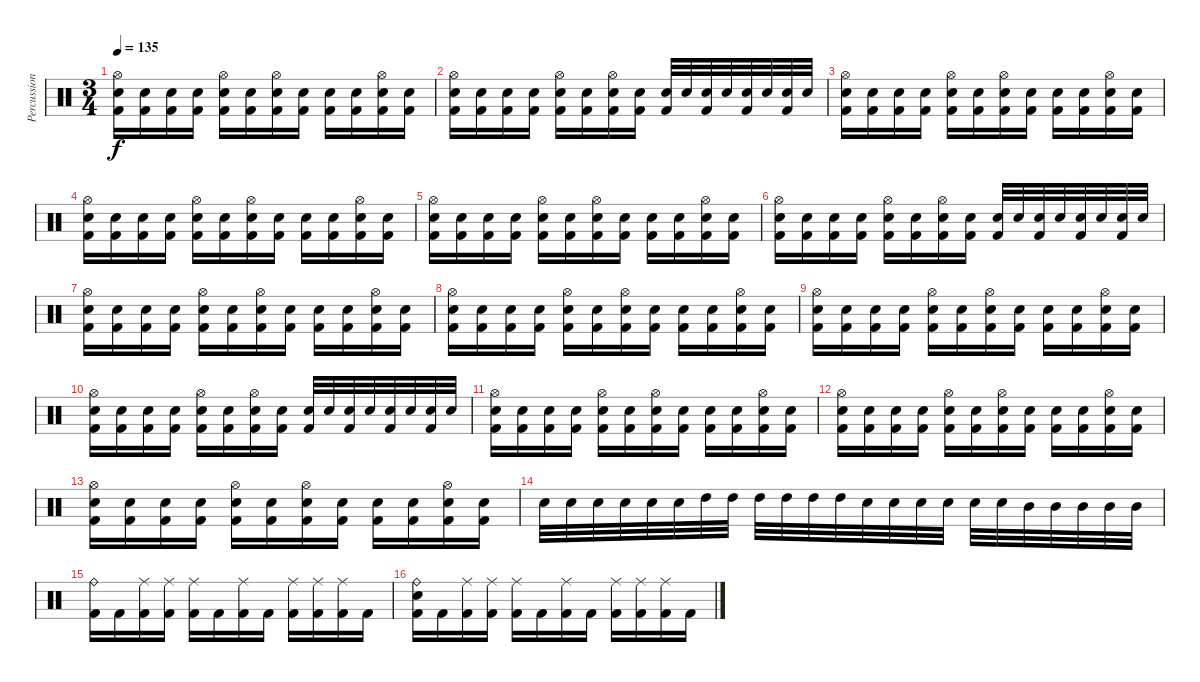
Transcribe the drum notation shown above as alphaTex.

\track ("Percussion" "Percussion") {instrument percussion}
\staff {score}
\articulation defaults
\ts (3 4)
\tempo 135
\clef neutral
\ks c
("Hi-Hat (open)" "Electric Snare (hit)" "Kick (hit) 2").16{dy f} ("Electric Snare (hit)" "Kick (hit) 2").16 ("Electric Snare (hit)" "Kick (hit) 2").16 ("Electric Snare (hit)" "Kick (hit) 2").16 ("Hi-Hat (open)" "Electric Snare (hit)" "Kick (hit) 2").16 ("Electric Snare (hit)" "Kick (hit) 2").16 ("Hi-Hat (open)" "Electric Snare (hit)" "Kick (hit) 2").16 ("Electric Snare (hit)" "Kick (hit) 2").16 ("Electric Snare (hit)" "Kick (hit) 2").16 ("Electric Snare (hit)" "Kick (hit) 2").16 ("Hi-Hat (open)" "Electric Snare (hit)" "Kick (hit) 2").16 ("Electric Snare (hit)" "Kick (hit) 2").16 |
("Hi-Hat (open)" "Electric Snare (hit)" "Kick (hit) 2").16 ("Electric Snare (hit)" "Kick (hit) 2").16 ("Electric Snare (hit)" "Kick (hit) 2").16 ("Electric Snare (hit)" "Kick (hit) 2").16 ("Hi-Hat (open)" "Electric Snare (hit)" "Kick (hit) 2").16 ("Electric Snare (hit)" "Kick (hit) 2").16 ("Hi-Hat (open)" "Electric Snare (hit)" "Kick (hit) 2").16 ("Electric Snare (hit)" "Kick (hit) 2").16 ("Electric Snare (hit)" "Kick (hit) 2").32 "Electric Snare (hit)".32 ("Electric Snare (hit)" "Kick (hit) 2").32 "Electric Snare (hit)".32 ("Electric Snare (hit)" "Kick (hit) 2").32 "Electric Snare (hit)".32 ("Electric Snare (hit)" "Kick (hit) 2").32 "Electric Snare (hit)".32 |
("Hi-Hat (open)" "Electric Snare (hit)" "Kick (hit) 2").16 ("Electric Snare (hit)" "Kick (hit) 2").16 ("Electric Snare (hit)" "Kick (hit) 2").16 ("Electric Snare (hit)" "Kick (hit) 2").16 ("Hi-Hat (open)" "Electric Snare (hit)" "Kick (hit) 2").16 ("Electric Snare (hit)" "Kick (hit) 2").16 ("Hi-Hat (open)" "Electric Snare (hit)" "Kick (hit) 2").16 ("Electric Snare (hit)" "Kick (hit) 2").16 ("Electric Snare (hit)" "Kick (hit) 2").16 ("Electric Snare (hit)" "Kick (hit) 2").16 ("Hi-Hat (open)" "Electric Snare (hit)" "Kick (hit) 2").16 ("Electric Snare (hit)" "Kick (hit) 2").16 |
("Hi-Hat (open)" "Electric Snare (hit)" "Kick (hit) 2").16 ("Electric Snare (hit)" "Kick (hit) 2").16 ("Electric Snare (hit)" "Kick (hit) 2").16 ("Electric Snare (hit)" "Kick (hit) 2").16 ("Hi-Hat (open)" "Electric Snare (hit)" "Kick (hit) 2").16 ("Electric Snare (hit)" "Kick (hit) 2").16 ("Hi-Hat (open)" "Electric Snare (hit)" "Kick (hit) 2").16 ("Electric Snare (hit)" "Kick (hit) 2").16 ("Electric Snare (hit)" "Kick (hit) 2").16 ("Electric Snare (hit)" "Kick (hit) 2").16 ("Hi-Hat (open)" "Electric Snare (hit)" "Kick (hit) 2").16 ("Electric Snare (hit)" "Kick (hit) 2").16 |
("Hi-Hat (open)" "Electric Snare (hit)" "Kick (hit) 2").16 ("Electric Snare (hit)" "Kick (hit) 2").16 ("Electric Snare (hit)" "Kick (hit) 2").16 ("Electric Snare (hit)" "Kick (hit) 2").16 ("Hi-Hat (open)" "Electric Snare (hit)" "Kick (hit) 2").16 ("Electric Snare (hit)" "Kick (hit) 2").16 ("Hi-Hat (open)" "Electric Snare (hit)" "Kick (hit) 2").16 ("Electric Snare (hit)" "Kick (hit) 2").16 ("Electric Snare (hit)" "Kick (hit) 2").16 ("Electric Snare (hit)" "Kick (hit) 2").16 ("Hi-Hat (open)" "Electric Snare (hit)" "Kick (hit) 2").16 ("Electric Snare (hit)" "Kick (hit) 2").16 |
("Hi-Hat (open)" "Electric Snare (hit)" "Kick (hit) 2").16 ("Electric Snare (hit)" "Kick (hit) 2").16 ("Electric Snare (hit)" "Kick (hit) 2").16 ("Electric Snare (hit)" "Kick (hit) 2").16 ("Hi-Hat (open)" "Electric Snare (hit)" "Kick (hit) 2").16 ("Electric Snare (hit)" "Kick (hit) 2").16 ("Hi-Hat (open)" "Electric Snare (hit)" "Kick (hit) 2").16 ("Electric Snare (hit)" "Kick (hit) 2").16 ("Electric Snare (hit)" "Kick (hit) 2").32 "Electric Snare (hit)".32 ("Electric Snare (hit)" "Kick (hit) 2").32 "Electric Snare (hit)".32 ("Electric Snare (hit)" "Kick (hit) 2").32 "Electric Snare (hit)".32 ("Electric Snare (hit)" "Kick (hit) 2").32 "Electric Snare (hit)".32 |
("Hi-Hat (open)" "Electric Snare (hit)" "Kick (hit) 2").16 ("Electric Snare (hit)" "Kick (hit) 2").16 ("Electric Snare (hit)" "Kick (hit) 2").16 ("Electric Snare (hit)" "Kick (hit) 2").16 ("Hi-Hat (open)" "Electric Snare (hit)" "Kick (hit) 2").16 ("Electric Snare (hit)" "Kick (hit) 2").16 ("Hi-Hat (open)" "Electric Snare (hit)" "Kick (hit) 2").16 ("Electric Snare (hit)" "Kick (hit) 2").16 ("Electric Snare (hit)" "Kick (hit) 2").16 ("Electric Snare (hit)" "Kick (hit) 2").16 ("Hi-Hat (open)" "Electric Snare (hit)" "Kick (hit) 2").16 ("Electric Snare (hit)" "Kick (hit) 2").16 |
("Hi-Hat (open)" "Electric Snare (hit)" "Kick (hit) 2").16 ("Electric Snare (hit)" "Kick (hit) 2").16 ("Electric Snare (hit)" "Kick (hit) 2").16 ("Electric Snare (hit)" "Kick (hit) 2").16 ("Hi-Hat (open)" "Electric Snare (hit)" "Kick (hit) 2").16 ("Electric Snare (hit)" "Kick (hit) 2").16 ("Hi-Hat (open)" "Electric Snare (hit)" "Kick (hit) 2").16 ("Electric Snare (hit)" "Kick (hit) 2").16 ("Electric Snare (hit)" "Kick (hit) 2").16 ("Electric Snare (hit)" "Kick (hit) 2").16 ("Hi-Hat (open)" "Electric Snare (hit)" "Kick (hit) 2").16 ("Electric Snare (hit)" "Kick (hit) 2").16 |
("Hi-Hat (open)" "Electric Snare (hit)" "Kick (hit) 2").16 ("Electric Snare (hit)" "Kick (hit) 2").16 ("Electric Snare (hit)" "Kick (hit) 2").16 ("Electric Snare (hit)" "Kick (hit) 2").16 ("Hi-Hat (open)" "Electric Snare (hit)" "Kick (hit) 2").16 ("Electric Snare (hit)" "Kick (hit) 2").16 ("Hi-Hat (open)" "Electric Snare (hit)" "Kick (hit) 2").16 ("Electric Snare (hit)" "Kick (hit) 2").16 ("Electric Snare (hit)" "Kick (hit) 2").16 ("Electric Snare (hit)" "Kick (hit) 2").16 ("Hi-Hat (open)" "Electric Snare (hit)" "Kick (hit) 2").16 ("Electric Snare (hit)" "Kick (hit) 2").16 |
("Hi-Hat (open)" "Electric Snare (hit)" "Kick (hit) 2").16 ("Electric Snare (hit)" "Kick (hit) 2").16 ("Electric Snare (hit)" "Kick (hit) 2").16 ("Electric Snare (hit)" "Kick (hit) 2").16 ("Hi-Hat (open)" "Electric Snare (hit)" "Kick (hit) 2").16 ("Electric Snare (hit)" "Kick (hit) 2").16 ("Hi-Hat (open)" "Electric Snare (hit)" "Kick (hit) 2").16 ("Electric Snare (hit)" "Kick (hit) 2").16 ("Electric Snare (hit)" "Kick (hit) 2").32 "Electric Snare (hit)".32 ("Electric Snare (hit)" "Kick (hit) 2").32 "Electric Snare (hit)".32 ("Electric Snare (hit)" "Kick (hit) 2").32 "Electric Snare (hit)".32 ("Electric Snare (hit)" "Kick (hit) 2").32 "Electric Snare (hit)".32 |
("Hi-Hat (open)" "Electric Snare (hit)" "Kick (hit) 2").16 ("Electric Snare (hit)" "Kick (hit) 2").16 ("Electric Snare (hit)" "Kick (hit) 2").16 ("Electric Snare (hit)" "Kick (hit) 2").16 ("Hi-Hat (open)" "Electric Snare (hit)" "Kick (hit) 2").16 ("Electric Snare (hit)" "Kick (hit) 2").16 ("Hi-Hat (open)" "Electric Snare (hit)" "Kick (hit) 2").16 ("Electric Snare (hit)" "Kick (hit) 2").16 ("Electric Snare (hit)" "Kick (hit) 2").16 ("Electric Snare (hit)" "Kick (hit) 2").16 ("Hi-Hat (open)" "Electric Snare (hit)" "Kick (hit) 2").16 ("Electric Snare (hit)" "Kick (hit) 2").16 |
("Hi-Hat (open)" "Electric Snare (hit)" "Kick (hit) 2").16 ("Electric Snare (hit)" "Kick (hit) 2").16 ("Electric Snare (hit)" "Kick (hit) 2").16 ("Electric Snare (hit)" "Kick (hit) 2").16 ("Hi-Hat (open)" "Electric Snare (hit)" "Kick (hit) 2").16 ("Electric Snare (hit)" "Kick (hit) 2").16 ("Hi-Hat (open)" "Electric Snare (hit)" "Kick (hit) 2").16 ("Electric Snare (hit)" "Kick (hit) 2").16 ("Electric Snare (hit)" "Kick (hit) 2").16 ("Electric Snare (hit)" "Kick (hit) 2").16 ("Hi-Hat (open)" "Electric Snare (hit)" "Kick (hit) 2").16 ("Electric Snare (hit)" "Kick (hit) 2").16 |
("Hi-Hat (open)" "Electric Snare (hit)" "Kick (hit) 2").16 ("Electric Snare (hit)" "Kick (hit) 2").16 ("Electric Snare (hit)" "Kick (hit) 2").16 ("Electric Snare (hit)" "Kick (hit) 2").16 ("Hi-Hat (open)" "Electric Snare (hit)" "Kick (hit) 2").16 ("Electric Snare (hit)" "Kick (hit) 2").16 ("Hi-Hat (open)" "Electric Snare (hit)" "Kick (hit) 2").16 ("Electric Snare (hit)" "Kick (hit) 2").16 ("Electric Snare (hit)" "Kick (hit) 2").16 ("Electric Snare (hit)" "Kick (hit) 2").16 ("Hi-Hat (open)" "Electric Snare (hit)" "Kick (hit) 2").16 ("Electric Snare (hit)" "Kick (hit) 2").16 |
"Electric Snare (hit)".32 "Electric Snare (hit)".32 "Electric Snare (hit)".32 "Electric Snare (hit)".32 "Electric Snare (hit)".32 "Electric Snare (hit)".32 "High Tom (hit)".32 "High Tom (hit)".32 "High Tom (hit)".32 "High Tom (hit)".32 "High Tom (hit)".32 "High Tom (hit)".32 "Electric Snare (hit)".32 "Electric Snare (hit)".32 "Electric Snare (hit)".32 "Electric Snare (hit)".32 "Electric Snare (hit)".32 "Electric Snare (hit)".32 "Mid Tom (hit)".32 "Mid Tom (hit)".32 "Mid Tom (hit)".32 "Mid Tom (hit)".32 "Mid Tom (hit)".32 |
("Ride (bell)" "Kick (hit) 2").16 "Kick (hit) 2".16 ("Ride (middle)" "Kick (hit) 2").16 ("Ride (middle)" "Kick (hit) 2").16 ("Ride (middle)" "Kick (hit) 2").16 "Kick (hit) 2".16 ("Ride (middle)" "Kick (hit) 2").16 "Kick (hit) 2".16 ("Ride (middle)" "Kick (hit) 2").16 ("Ride (middle)" "Kick (hit) 2").16 ("Ride (middle)" "Kick (hit) 2").16 "Kick (hit) 2".16 |
("Ride (bell)" "Electric Snare (hit)" "Kick (hit) 2").16 "Kick (hit) 2".16 ("Ride (middle)" "Kick (hit) 2").16 ("Ride (middle)" "Kick (hit) 2").16 ("Ride (middle)" "Kick (hit) 2").16 "Kick (hit) 2".16 ("Ride (middle)" "Kick (hit) 2").16 "Kick (hit) 2".16 ("Ride (middle)" "Kick (hit) 2").16 ("Ride (middle)" "Kick (hit) 2").16 ("Ride (middle)" "Kick (hit) 2").16 "Kick (hit) 2".16
